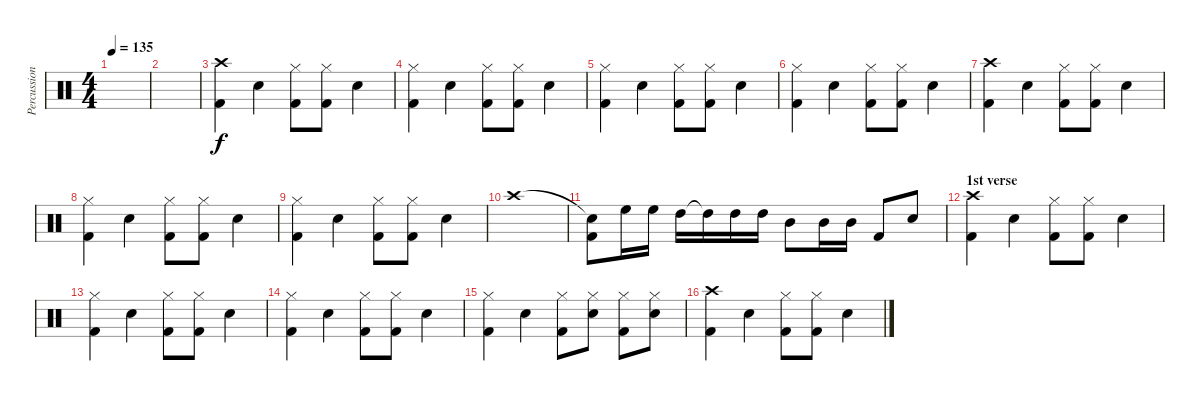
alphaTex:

\track ("Percussion" "Percussion") {instrument percussion}
\staff {score}
\articulation defaults
\ts (4 4)
\tempo 135
\clef neutral
\ks c
|
|
("Crash high (hit)" "Kick (hit) 2").4 "Snare (hit) 2".4 ("Kick (hit) 2" "Hi-Hat (closed)").8 ("Kick (hit) 2" "Hi-Hat (closed)").8 "Snare (hit) 2".4 |
("Hi-Hat (closed)" "Kick (hit) 2").4 "Snare (hit) 2".4 ("Kick (hit) 2" "Hi-Hat (closed)").8 ("Kick (hit) 2" "Hi-Hat (closed)").8 "Snare (hit) 2".4 |
("Hi-Hat (closed)" "Kick (hit) 2").4 "Snare (hit) 2".4 ("Kick (hit) 2" "Hi-Hat (closed)").8 ("Kick (hit) 2" "Hi-Hat (closed)").8 "Snare (hit) 2".4 |
("Hi-Hat (closed)" "Kick (hit) 2").4 "Snare (hit) 2".4 ("Kick (hit) 2" "Hi-Hat (closed)").8 ("Kick (hit) 2" "Hi-Hat (closed)").8 "Snare (hit) 2".4 |
("Crash high (hit)" "Kick (hit) 2").4 "Snare (hit) 2".4 ("Kick (hit) 2" "Hi-Hat (closed)").8 ("Kick (hit) 2" "Hi-Hat (closed)").8 "Snare (hit) 2".4 |
("Hi-Hat (closed)" "Kick (hit) 2").4 "Snare (hit) 2".4 ("Kick (hit) 2" "Hi-Hat (closed)").8 ("Kick (hit) 2" "Hi-Hat (closed)").8 "Snare (hit) 2".4 |
("Hi-Hat (closed)" "Kick (hit) 2").4 "Snare (hit) 2".4 ("Kick (hit) 2" "Hi-Hat (closed)").8 ("Kick (hit) 2" "Hi-Hat (closed)").8 "Snare (hit) 2".4 |
"Crash high (hit)".1 |
("Snare (hit)"{t} "Kick (hit) 2").8 "High Floor Tom (hit)".16 "High Floor Tom (hit)".16 "High Tom (hit)".16 "High Tom (hit)"{t}.16 "High Tom (hit)".16 "High Tom (hit)".16 "Mid Tom (hit)".8 "Mid Tom (hit)".16 "Mid Tom (hit)".16 "Kick (hit) 2".8 "Snare (hit) 2".8 |
\section ("" "1st verse")
("Crash high (hit)" "Kick (hit) 2").4 "Snare (hit) 2".4 ("Kick (hit) 2" "Hi-Hat (closed)").8 ("Kick (hit) 2" "Hi-Hat (closed)").8 "Snare (hit) 2".4 |
("Hi-Hat (closed)" "Kick (hit) 2").4 "Snare (hit) 2".4 ("Kick (hit) 2" "Hi-Hat (closed)").8 ("Kick (hit) 2" "Hi-Hat (closed)").8 "Snare (hit) 2".4 |
("Hi-Hat (closed)" "Kick (hit) 2").4 "Snare (hit) 2".4 ("Kick (hit) 2" "Hi-Hat (closed)").8 ("Kick (hit) 2" "Hi-Hat (closed)").8 "Snare (hit) 2".4 |
("Hi-Hat (closed)" "Kick (hit) 2").4 "Snare (hit) 2".4 ("Kick (hit) 2" "Hi-Hat (closed)").8 ("Snare (hit) 2" "Hi-Hat (closed)").8 ("Kick (hit) 2" "Hi-Hat (closed)").8 ("Snare (hit) 2" "Hi-Hat (closed)").8 |
("Crash high (hit)" "Kick (hit) 2").4 "Snare (hit) 2".4 ("Kick (hit) 2" "Hi-Hat (closed)").8 ("Kick (hit) 2" "Hi-Hat (closed)").8 "Snare (hit) 2".4
